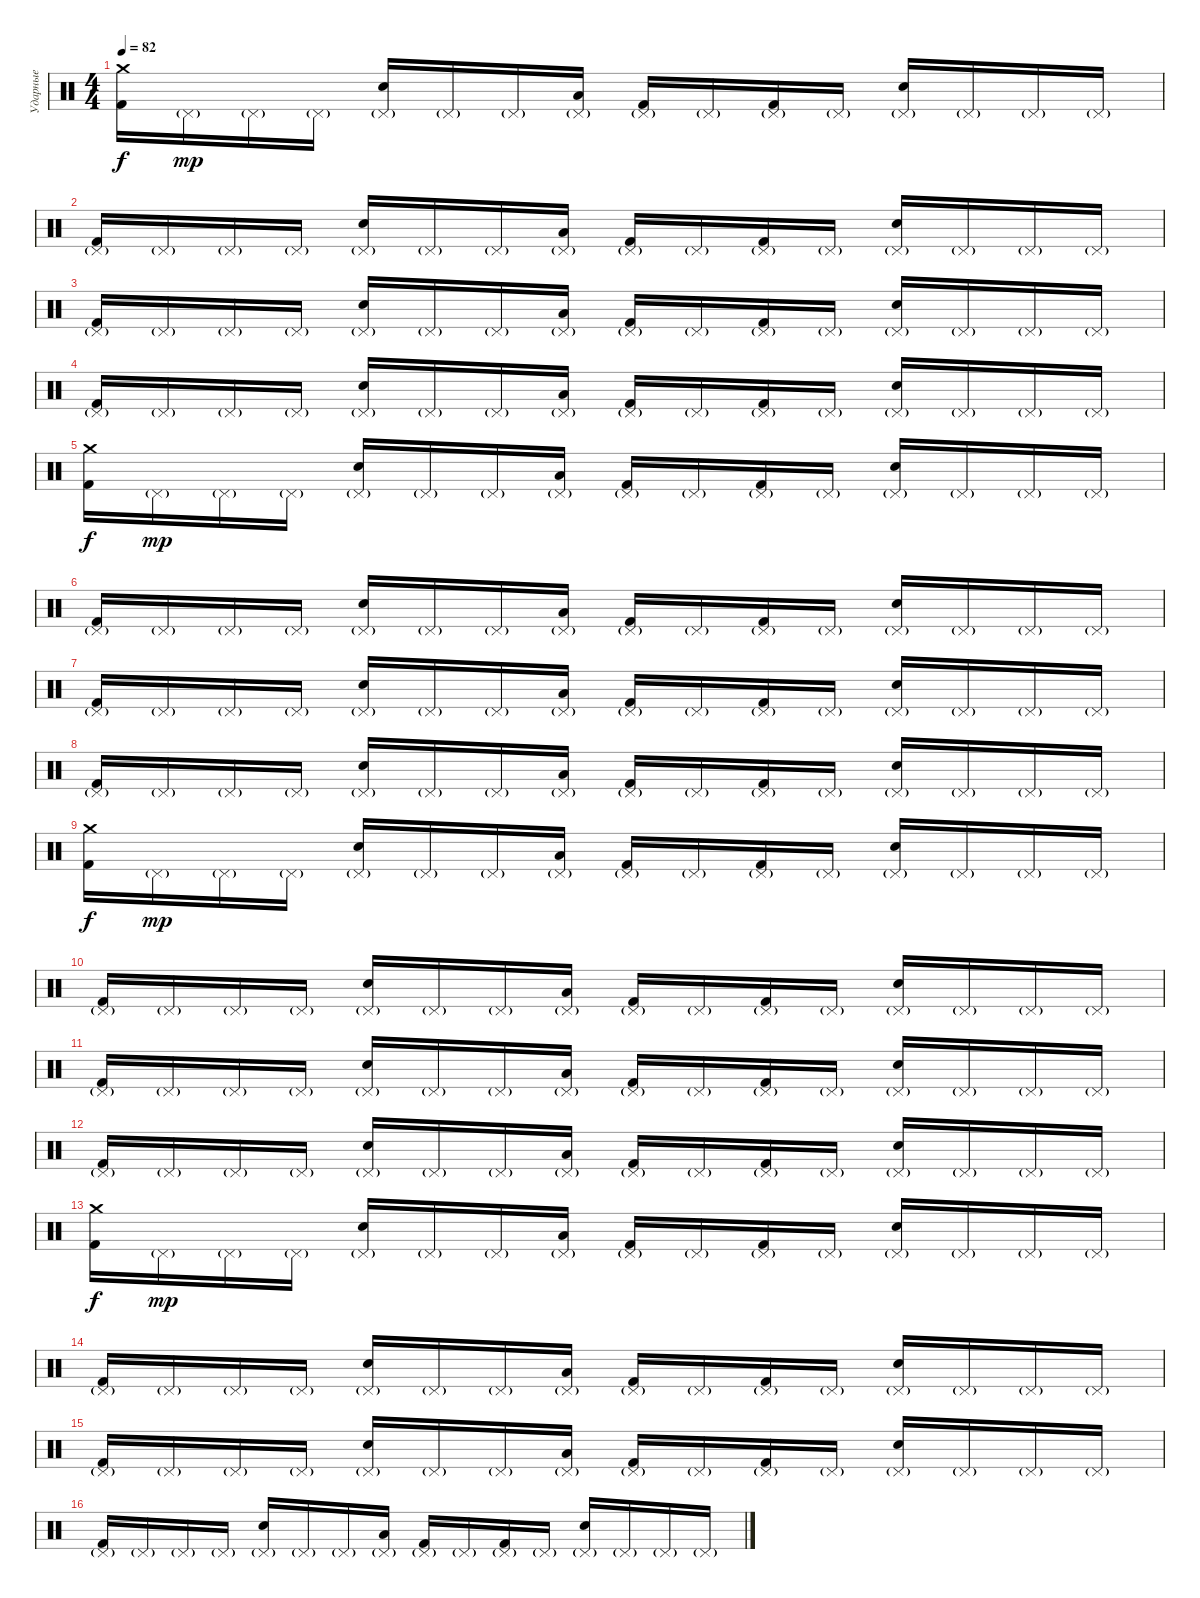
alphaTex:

\track ("Ударные" "Ударные") {instrument percussion}
\staff {score}
\articulation defaults
\ts (4 4)
\tempo 82
\clef neutral
\ks c
("Crash medium (hit)" "Kick (hit) 2").16{dy f} "Pedal Hi-Hat (hit)"{g}.16{dy mp} "Pedal Hi-Hat (hit)"{g}.16 "Pedal Hi-Hat (hit)"{g}.16 ("Pedal Hi-Hat (hit)"{g} "Electric Snare (hit)").16 "Pedal Hi-Hat (hit)"{g}.16 "Pedal Hi-Hat (hit)"{g}.16 ("Pedal Hi-Hat (hit)"{g} "Low Floor Tom (hit)").16 ("Pedal Hi-Hat (hit)"{g} "Kick (hit) 2").16 "Pedal Hi-Hat (hit)"{g}.16 ("Pedal Hi-Hat (hit)"{g} "Kick (hit) 2").16 "Pedal Hi-Hat (hit)"{g}.16 ("Pedal Hi-Hat (hit)"{g} "Electric Snare (hit)").16 "Pedal Hi-Hat (hit)"{g}.16 "Pedal Hi-Hat (hit)"{g}.16 "Pedal Hi-Hat (hit)"{g}.16 |
("Pedal Hi-Hat (hit)"{g} "Kick (hit) 2").16 "Pedal Hi-Hat (hit)"{g}.16 "Pedal Hi-Hat (hit)"{g}.16 "Pedal Hi-Hat (hit)"{g}.16 ("Pedal Hi-Hat (hit)"{g} "Electric Snare (hit)").16 "Pedal Hi-Hat (hit)"{g}.16 "Pedal Hi-Hat (hit)"{g}.16 ("Pedal Hi-Hat (hit)"{g} "Low Floor Tom (hit)").16 ("Pedal Hi-Hat (hit)"{g} "Kick (hit) 2").16 "Pedal Hi-Hat (hit)"{g}.16 ("Pedal Hi-Hat (hit)"{g} "Kick (hit) 2").16 "Pedal Hi-Hat (hit)"{g}.16 ("Pedal Hi-Hat (hit)"{g} "Electric Snare (hit)").16 "Pedal Hi-Hat (hit)"{g}.16 "Pedal Hi-Hat (hit)"{g}.16 "Pedal Hi-Hat (hit)"{g}.16 |
("Pedal Hi-Hat (hit)"{g} "Kick (hit) 2").16 "Pedal Hi-Hat (hit)"{g}.16 "Pedal Hi-Hat (hit)"{g}.16 "Pedal Hi-Hat (hit)"{g}.16 ("Pedal Hi-Hat (hit)"{g} "Electric Snare (hit)").16 "Pedal Hi-Hat (hit)"{g}.16 "Pedal Hi-Hat (hit)"{g}.16 ("Pedal Hi-Hat (hit)"{g} "Low Floor Tom (hit)").16 ("Pedal Hi-Hat (hit)"{g} "Kick (hit) 2").16 "Pedal Hi-Hat (hit)"{g}.16 ("Pedal Hi-Hat (hit)"{g} "Kick (hit) 2").16 "Pedal Hi-Hat (hit)"{g}.16 ("Pedal Hi-Hat (hit)"{g} "Electric Snare (hit)").16 "Pedal Hi-Hat (hit)"{g}.16 "Pedal Hi-Hat (hit)"{g}.16 "Pedal Hi-Hat (hit)"{g}.16 |
("Pedal Hi-Hat (hit)"{g} "Kick (hit) 2").16 "Pedal Hi-Hat (hit)"{g}.16 "Pedal Hi-Hat (hit)"{g}.16 "Pedal Hi-Hat (hit)"{g}.16 ("Pedal Hi-Hat (hit)"{g} "Electric Snare (hit)").16 "Pedal Hi-Hat (hit)"{g}.16 "Pedal Hi-Hat (hit)"{g}.16 ("Pedal Hi-Hat (hit)"{g} "Low Floor Tom (hit)").16 ("Pedal Hi-Hat (hit)"{g} "Kick (hit) 2").16 "Pedal Hi-Hat (hit)"{g}.16 ("Pedal Hi-Hat (hit)"{g} "Kick (hit) 2").16 "Pedal Hi-Hat (hit)"{g}.16 ("Pedal Hi-Hat (hit)"{g} "Electric Snare (hit)").16 "Pedal Hi-Hat (hit)"{g}.16 "Pedal Hi-Hat (hit)"{g}.16 "Pedal Hi-Hat (hit)"{g}.16 |
("Crash medium (hit)" "Kick (hit) 2").16{dy f} "Pedal Hi-Hat (hit)"{g}.16{dy mp} "Pedal Hi-Hat (hit)"{g}.16 "Pedal Hi-Hat (hit)"{g}.16 ("Pedal Hi-Hat (hit)"{g} "Electric Snare (hit)").16 "Pedal Hi-Hat (hit)"{g}.16 "Pedal Hi-Hat (hit)"{g}.16 ("Pedal Hi-Hat (hit)"{g} "Low Floor Tom (hit)").16 ("Pedal Hi-Hat (hit)"{g} "Kick (hit) 2").16 "Pedal Hi-Hat (hit)"{g}.16 ("Pedal Hi-Hat (hit)"{g} "Kick (hit) 2").16 "Pedal Hi-Hat (hit)"{g}.16 ("Pedal Hi-Hat (hit)"{g} "Electric Snare (hit)").16 "Pedal Hi-Hat (hit)"{g}.16 "Pedal Hi-Hat (hit)"{g}.16 "Pedal Hi-Hat (hit)"{g}.16 |
("Pedal Hi-Hat (hit)"{g} "Kick (hit) 2").16 "Pedal Hi-Hat (hit)"{g}.16 "Pedal Hi-Hat (hit)"{g}.16 "Pedal Hi-Hat (hit)"{g}.16 ("Pedal Hi-Hat (hit)"{g} "Electric Snare (hit)").16 "Pedal Hi-Hat (hit)"{g}.16 "Pedal Hi-Hat (hit)"{g}.16 ("Pedal Hi-Hat (hit)"{g} "Low Floor Tom (hit)").16 ("Pedal Hi-Hat (hit)"{g} "Kick (hit) 2").16 "Pedal Hi-Hat (hit)"{g}.16 ("Pedal Hi-Hat (hit)"{g} "Kick (hit) 2").16 "Pedal Hi-Hat (hit)"{g}.16 ("Pedal Hi-Hat (hit)"{g} "Electric Snare (hit)").16 "Pedal Hi-Hat (hit)"{g}.16 "Pedal Hi-Hat (hit)"{g}.16 "Pedal Hi-Hat (hit)"{g}.16 |
("Pedal Hi-Hat (hit)"{g} "Kick (hit) 2").16 "Pedal Hi-Hat (hit)"{g}.16 "Pedal Hi-Hat (hit)"{g}.16 "Pedal Hi-Hat (hit)"{g}.16 ("Pedal Hi-Hat (hit)"{g} "Electric Snare (hit)").16 "Pedal Hi-Hat (hit)"{g}.16 "Pedal Hi-Hat (hit)"{g}.16 ("Pedal Hi-Hat (hit)"{g} "Low Floor Tom (hit)").16 ("Pedal Hi-Hat (hit)"{g} "Kick (hit) 2").16 "Pedal Hi-Hat (hit)"{g}.16 ("Pedal Hi-Hat (hit)"{g} "Kick (hit) 2").16 "Pedal Hi-Hat (hit)"{g}.16 ("Pedal Hi-Hat (hit)"{g} "Electric Snare (hit)").16 "Pedal Hi-Hat (hit)"{g}.16 "Pedal Hi-Hat (hit)"{g}.16 "Pedal Hi-Hat (hit)"{g}.16 |
("Pedal Hi-Hat (hit)"{g} "Kick (hit) 2").16 "Pedal Hi-Hat (hit)"{g}.16 "Pedal Hi-Hat (hit)"{g}.16 "Pedal Hi-Hat (hit)"{g}.16 ("Pedal Hi-Hat (hit)"{g} "Electric Snare (hit)").16 "Pedal Hi-Hat (hit)"{g}.16 "Pedal Hi-Hat (hit)"{g}.16 ("Pedal Hi-Hat (hit)"{g} "Low Floor Tom (hit)").16 ("Pedal Hi-Hat (hit)"{g} "Kick (hit) 2").16 "Pedal Hi-Hat (hit)"{g}.16 ("Pedal Hi-Hat (hit)"{g} "Kick (hit) 2").16 "Pedal Hi-Hat (hit)"{g}.16 ("Pedal Hi-Hat (hit)"{g} "Electric Snare (hit)").16 "Pedal Hi-Hat (hit)"{g}.16 "Pedal Hi-Hat (hit)"{g}.16 "Pedal Hi-Hat (hit)"{g}.16 |
("Crash medium (hit)" "Kick (hit) 2").16{dy f} "Pedal Hi-Hat (hit)"{g}.16{dy mp} "Pedal Hi-Hat (hit)"{g}.16 "Pedal Hi-Hat (hit)"{g}.16 ("Pedal Hi-Hat (hit)"{g} "Electric Snare (hit)").16 "Pedal Hi-Hat (hit)"{g}.16 "Pedal Hi-Hat (hit)"{g}.16 ("Pedal Hi-Hat (hit)"{g} "Low Floor Tom (hit)").16 ("Pedal Hi-Hat (hit)"{g} "Kick (hit) 2").16 "Pedal Hi-Hat (hit)"{g}.16 ("Pedal Hi-Hat (hit)"{g} "Kick (hit) 2").16 "Pedal Hi-Hat (hit)"{g}.16 ("Pedal Hi-Hat (hit)"{g} "Electric Snare (hit)").16 "Pedal Hi-Hat (hit)"{g}.16 "Pedal Hi-Hat (hit)"{g}.16 "Pedal Hi-Hat (hit)"{g}.16 |
("Pedal Hi-Hat (hit)"{g} "Kick (hit) 2").16 "Pedal Hi-Hat (hit)"{g}.16 "Pedal Hi-Hat (hit)"{g}.16 "Pedal Hi-Hat (hit)"{g}.16 ("Pedal Hi-Hat (hit)"{g} "Electric Snare (hit)").16 "Pedal Hi-Hat (hit)"{g}.16 "Pedal Hi-Hat (hit)"{g}.16 ("Pedal Hi-Hat (hit)"{g} "Low Floor Tom (hit)").16 ("Pedal Hi-Hat (hit)"{g} "Kick (hit) 2").16 "Pedal Hi-Hat (hit)"{g}.16 ("Pedal Hi-Hat (hit)"{g} "Kick (hit) 2").16 "Pedal Hi-Hat (hit)"{g}.16 ("Pedal Hi-Hat (hit)"{g} "Electric Snare (hit)").16 "Pedal Hi-Hat (hit)"{g}.16 "Pedal Hi-Hat (hit)"{g}.16 "Pedal Hi-Hat (hit)"{g}.16 |
("Pedal Hi-Hat (hit)"{g} "Kick (hit) 2").16 "Pedal Hi-Hat (hit)"{g}.16 "Pedal Hi-Hat (hit)"{g}.16 "Pedal Hi-Hat (hit)"{g}.16 ("Pedal Hi-Hat (hit)"{g} "Electric Snare (hit)").16 "Pedal Hi-Hat (hit)"{g}.16 "Pedal Hi-Hat (hit)"{g}.16 ("Pedal Hi-Hat (hit)"{g} "Low Floor Tom (hit)").16 ("Pedal Hi-Hat (hit)"{g} "Kick (hit) 2").16 "Pedal Hi-Hat (hit)"{g}.16 ("Pedal Hi-Hat (hit)"{g} "Kick (hit) 2").16 "Pedal Hi-Hat (hit)"{g}.16 ("Pedal Hi-Hat (hit)"{g} "Electric Snare (hit)").16 "Pedal Hi-Hat (hit)"{g}.16 "Pedal Hi-Hat (hit)"{g}.16 "Pedal Hi-Hat (hit)"{g}.16 |
("Pedal Hi-Hat (hit)"{g} "Kick (hit) 2").16 "Pedal Hi-Hat (hit)"{g}.16 "Pedal Hi-Hat (hit)"{g}.16 "Pedal Hi-Hat (hit)"{g}.16 ("Pedal Hi-Hat (hit)"{g} "Electric Snare (hit)").16 "Pedal Hi-Hat (hit)"{g}.16 "Pedal Hi-Hat (hit)"{g}.16 ("Pedal Hi-Hat (hit)"{g} "Low Floor Tom (hit)").16 ("Pedal Hi-Hat (hit)"{g} "Kick (hit) 2").16 "Pedal Hi-Hat (hit)"{g}.16 ("Pedal Hi-Hat (hit)"{g} "Kick (hit) 2").16 "Pedal Hi-Hat (hit)"{g}.16 ("Pedal Hi-Hat (hit)"{g} "Electric Snare (hit)").16 "Pedal Hi-Hat (hit)"{g}.16 "Pedal Hi-Hat (hit)"{g}.16 "Pedal Hi-Hat (hit)"{g}.16 |
("Crash medium (hit)" "Kick (hit) 2").16{dy f} "Pedal Hi-Hat (hit)"{g}.16{dy mp} "Pedal Hi-Hat (hit)"{g}.16 "Pedal Hi-Hat (hit)"{g}.16 ("Pedal Hi-Hat (hit)"{g} "Electric Snare (hit)").16 "Pedal Hi-Hat (hit)"{g}.16 "Pedal Hi-Hat (hit)"{g}.16 ("Pedal Hi-Hat (hit)"{g} "Low Floor Tom (hit)").16 ("Pedal Hi-Hat (hit)"{g} "Kick (hit) 2").16 "Pedal Hi-Hat (hit)"{g}.16 ("Pedal Hi-Hat (hit)"{g} "Kick (hit) 2").16 "Pedal Hi-Hat (hit)"{g}.16 ("Pedal Hi-Hat (hit)"{g} "Electric Snare (hit)").16 "Pedal Hi-Hat (hit)"{g}.16 "Pedal Hi-Hat (hit)"{g}.16 "Pedal Hi-Hat (hit)"{g}.16 |
("Pedal Hi-Hat (hit)"{g} "Kick (hit) 2").16 "Pedal Hi-Hat (hit)"{g}.16 "Pedal Hi-Hat (hit)"{g}.16 "Pedal Hi-Hat (hit)"{g}.16 ("Pedal Hi-Hat (hit)"{g} "Electric Snare (hit)").16 "Pedal Hi-Hat (hit)"{g}.16 "Pedal Hi-Hat (hit)"{g}.16 ("Pedal Hi-Hat (hit)"{g} "Low Floor Tom (hit)").16 ("Pedal Hi-Hat (hit)"{g} "Kick (hit) 2").16 "Pedal Hi-Hat (hit)"{g}.16 ("Pedal Hi-Hat (hit)"{g} "Kick (hit) 2").16 "Pedal Hi-Hat (hit)"{g}.16 ("Pedal Hi-Hat (hit)"{g} "Electric Snare (hit)").16 "Pedal Hi-Hat (hit)"{g}.16 "Pedal Hi-Hat (hit)"{g}.16 "Pedal Hi-Hat (hit)"{g}.16 |
("Pedal Hi-Hat (hit)"{g} "Kick (hit) 2").16 "Pedal Hi-Hat (hit)"{g}.16 "Pedal Hi-Hat (hit)"{g}.16 "Pedal Hi-Hat (hit)"{g}.16 ("Pedal Hi-Hat (hit)"{g} "Electric Snare (hit)").16 "Pedal Hi-Hat (hit)"{g}.16 "Pedal Hi-Hat (hit)"{g}.16 ("Pedal Hi-Hat (hit)"{g} "Low Floor Tom (hit)").16 ("Pedal Hi-Hat (hit)"{g} "Kick (hit) 2").16 "Pedal Hi-Hat (hit)"{g}.16 ("Pedal Hi-Hat (hit)"{g} "Kick (hit) 2").16 "Pedal Hi-Hat (hit)"{g}.16 ("Pedal Hi-Hat (hit)"{g} "Electric Snare (hit)").16 "Pedal Hi-Hat (hit)"{g}.16 "Pedal Hi-Hat (hit)"{g}.16 "Pedal Hi-Hat (hit)"{g}.16 |
("Pedal Hi-Hat (hit)"{g} "Kick (hit) 2").16 "Pedal Hi-Hat (hit)"{g}.16 "Pedal Hi-Hat (hit)"{g}.16 "Pedal Hi-Hat (hit)"{g}.16 ("Pedal Hi-Hat (hit)"{g} "Electric Snare (hit)").16 "Pedal Hi-Hat (hit)"{g}.16 "Pedal Hi-Hat (hit)"{g}.16 ("Pedal Hi-Hat (hit)"{g} "Low Floor Tom (hit)").16 ("Pedal Hi-Hat (hit)"{g} "Kick (hit) 2").16 "Pedal Hi-Hat (hit)"{g}.16 ("Pedal Hi-Hat (hit)"{g} "Kick (hit) 2").16 "Pedal Hi-Hat (hit)"{g}.16 ("Pedal Hi-Hat (hit)"{g} "Electric Snare (hit)").16 "Pedal Hi-Hat (hit)"{g}.16 "Pedal Hi-Hat (hit)"{g}.16 "Pedal Hi-Hat (hit)"{g}.16
